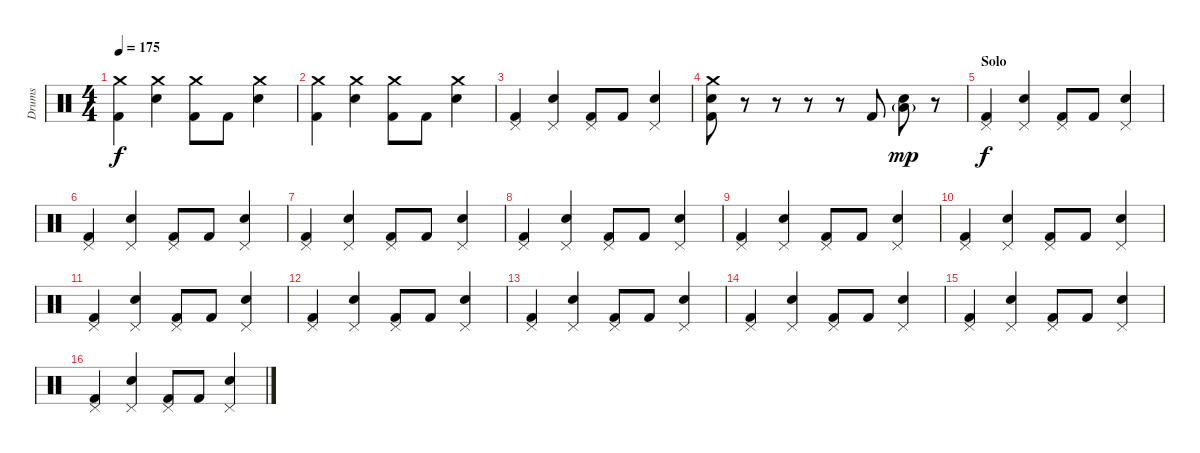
\track ("Drums" "Drums") {instrument percussion}
\staff {score}
\articulation defaults
\ts (4 4)
\tempo 175
\clef neutral
\ks c
("Crash medium (hit)" "Kick (hit) 2").4{dy f} ("Crash medium (hit)" "Electric Snare (hit)").4 ("Crash medium (hit)" "Kick (hit) 2").8 "Kick (hit) 2".8 ("Crash medium (hit)" "Electric Snare (hit)").4 |
("Crash medium (hit)" "Kick (hit) 2").4 ("Crash medium (hit)" "Electric Snare (hit)").4 ("Crash medium (hit)" "Kick (hit) 2").8 "Kick (hit) 2".8 ("Crash medium (hit)" "Electric Snare (hit)").4 |
("Pedal Hi-Hat (hit)" "Kick (hit) 2").4 ("Pedal Hi-Hat (hit)" "Electric Snare (hit)").4 ("Pedal Hi-Hat (hit)" "Kick (hit) 2").8 "Kick (hit) 2".8 ("Pedal Hi-Hat (hit)" "Electric Snare (hit)").4 |
("Crash medium (hit)" "Kick (hit) 2" "Electric Snare (hit)").8 r.8 r.8 r.8 r.8 "Kick (hit) 2".8 ("Low Floor Tom (hit)"{g} "Electric Snare (hit)").8{dy mp} r.8 |
\section ("" "Solo")
("Pedal Hi-Hat (hit)" "Kick (hit) 2").4{dy f} ("Pedal Hi-Hat (hit)" "Electric Snare (hit)").4 ("Pedal Hi-Hat (hit)" "Kick (hit) 2").8 "Kick (hit) 2".8 ("Pedal Hi-Hat (hit)" "Electric Snare (hit)").4 |
("Pedal Hi-Hat (hit)" "Kick (hit) 2").4 ("Pedal Hi-Hat (hit)" "Electric Snare (hit)").4 ("Pedal Hi-Hat (hit)" "Kick (hit) 2").8 "Kick (hit) 2".8 ("Pedal Hi-Hat (hit)" "Electric Snare (hit)").4 |
("Pedal Hi-Hat (hit)" "Kick (hit) 2").4 ("Pedal Hi-Hat (hit)" "Electric Snare (hit)").4 ("Pedal Hi-Hat (hit)" "Kick (hit) 2").8 "Kick (hit) 2".8 ("Pedal Hi-Hat (hit)" "Electric Snare (hit)").4 |
("Pedal Hi-Hat (hit)" "Kick (hit) 2").4 ("Pedal Hi-Hat (hit)" "Electric Snare (hit)").4 ("Pedal Hi-Hat (hit)" "Kick (hit) 2").8 "Kick (hit) 2".8 ("Pedal Hi-Hat (hit)" "Electric Snare (hit)").4 |
("Pedal Hi-Hat (hit)" "Kick (hit) 2").4 ("Pedal Hi-Hat (hit)" "Electric Snare (hit)").4 ("Pedal Hi-Hat (hit)" "Kick (hit) 2").8 "Kick (hit) 2".8 ("Pedal Hi-Hat (hit)" "Electric Snare (hit)").4 |
("Pedal Hi-Hat (hit)" "Kick (hit) 2").4 ("Pedal Hi-Hat (hit)" "Electric Snare (hit)").4 ("Pedal Hi-Hat (hit)" "Kick (hit) 2").8 "Kick (hit) 2".8 ("Pedal Hi-Hat (hit)" "Electric Snare (hit)").4 |
("Pedal Hi-Hat (hit)" "Kick (hit) 2").4 ("Pedal Hi-Hat (hit)" "Electric Snare (hit)").4 ("Pedal Hi-Hat (hit)" "Kick (hit) 2").8 "Kick (hit) 2".8 ("Pedal Hi-Hat (hit)" "Electric Snare (hit)").4 |
("Pedal Hi-Hat (hit)" "Kick (hit) 2").4 ("Pedal Hi-Hat (hit)" "Electric Snare (hit)").4 ("Pedal Hi-Hat (hit)" "Kick (hit) 2").8 "Kick (hit) 2".8 ("Pedal Hi-Hat (hit)" "Electric Snare (hit)").4 |
("Pedal Hi-Hat (hit)" "Kick (hit) 2").4 ("Pedal Hi-Hat (hit)" "Electric Snare (hit)").4 ("Pedal Hi-Hat (hit)" "Kick (hit) 2").8 "Kick (hit) 2".8 ("Pedal Hi-Hat (hit)" "Electric Snare (hit)").4 |
("Pedal Hi-Hat (hit)" "Kick (hit) 2").4 ("Pedal Hi-Hat (hit)" "Electric Snare (hit)").4 ("Pedal Hi-Hat (hit)" "Kick (hit) 2").8 "Kick (hit) 2".8 ("Pedal Hi-Hat (hit)" "Electric Snare (hit)").4 |
("Pedal Hi-Hat (hit)" "Kick (hit) 2").4 ("Pedal Hi-Hat (hit)" "Electric Snare (hit)").4 ("Pedal Hi-Hat (hit)" "Kick (hit) 2").8 "Kick (hit) 2".8 ("Pedal Hi-Hat (hit)" "Electric Snare (hit)").4 |
("Pedal Hi-Hat (hit)" "Kick (hit) 2").4 ("Pedal Hi-Hat (hit)" "Electric Snare (hit)").4 ("Pedal Hi-Hat (hit)" "Kick (hit) 2").8 "Kick (hit) 2".8 ("Pedal Hi-Hat (hit)" "Electric Snare (hit)").4
